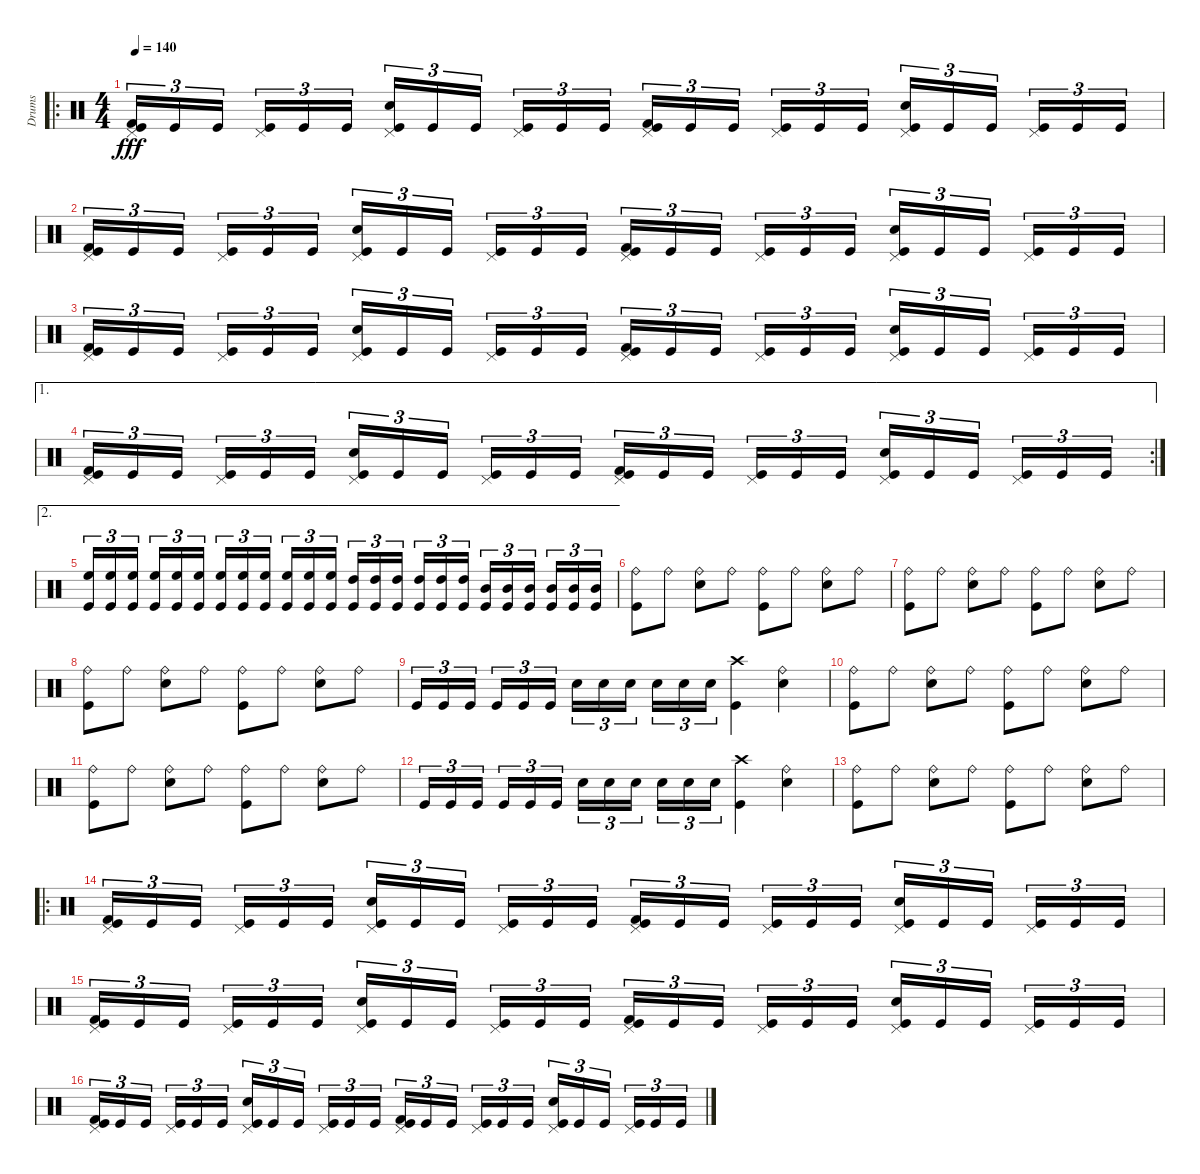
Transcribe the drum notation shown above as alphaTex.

\track ("Drums" "Drums") {instrument percussion}
\staff {score}
\articulation defaults
\ro
\ts (4 4)
\tempo 140
\clef neutral
\ks c
("Kick (hit)" "Kick (hit) 2" "Pedal Hi-Hat (hit)").16{tu (3 2) dy fff} "Kick (hit)".16{tu (3 2)} "Kick (hit)".16{tu (3 2)} ("Kick (hit)" "Pedal Hi-Hat (hit)").16{tu (3 2)} "Kick (hit)".16{tu (3 2)} "Kick (hit)".16{tu (3 2)} ("Kick (hit)" "Snare (hit) 2" "Pedal Hi-Hat (hit)").16{tu (3 2)} "Kick (hit)".16{tu (3 2)} "Kick (hit)".16{tu (3 2)} ("Kick (hit)" "Pedal Hi-Hat (hit)").16{tu (3 2)} "Kick (hit)".16{tu (3 2)} "Kick (hit)".16{tu (3 2)} ("Kick (hit)" "Kick (hit) 2" "Pedal Hi-Hat (hit)").16{tu (3 2)} "Kick (hit)".16{tu (3 2)} "Kick (hit)".16{tu (3 2)} ("Kick (hit)" "Pedal Hi-Hat (hit)").16{tu (3 2)} "Kick (hit)".16{tu (3 2)} "Kick (hit)".16{tu (3 2)} ("Kick (hit)" "Snare (hit) 2" "Pedal Hi-Hat (hit)").16{tu (3 2)} "Kick (hit)".16{tu (3 2)} "Kick (hit)".16{tu (3 2)} ("Kick (hit)" "Pedal Hi-Hat (hit)").16{tu (3 2)} "Kick (hit)".16{tu (3 2)} "Kick (hit)".16{tu (3 2)} |
("Kick (hit)" "Kick (hit) 2" "Pedal Hi-Hat (hit)").16{tu (3 2)} "Kick (hit)".16{tu (3 2)} "Kick (hit)".16{tu (3 2)} ("Kick (hit)" "Pedal Hi-Hat (hit)").16{tu (3 2)} "Kick (hit)".16{tu (3 2)} "Kick (hit)".16{tu (3 2)} ("Kick (hit)" "Snare (hit) 2" "Pedal Hi-Hat (hit)").16{tu (3 2)} "Kick (hit)".16{tu (3 2)} "Kick (hit)".16{tu (3 2)} ("Kick (hit)" "Pedal Hi-Hat (hit)").16{tu (3 2)} "Kick (hit)".16{tu (3 2)} "Kick (hit)".16{tu (3 2)} ("Kick (hit)" "Kick (hit) 2" "Pedal Hi-Hat (hit)").16{tu (3 2)} "Kick (hit)".16{tu (3 2)} "Kick (hit)".16{tu (3 2)} ("Kick (hit)" "Pedal Hi-Hat (hit)").16{tu (3 2)} "Kick (hit)".16{tu (3 2)} "Kick (hit)".16{tu (3 2)} ("Kick (hit)" "Snare (hit) 2" "Pedal Hi-Hat (hit)").16{tu (3 2)} "Kick (hit)".16{tu (3 2)} "Kick (hit)".16{tu (3 2)} ("Kick (hit)" "Pedal Hi-Hat (hit)").16{tu (3 2)} "Kick (hit)".16{tu (3 2)} "Kick (hit)".16{tu (3 2)} |
("Kick (hit)" "Kick (hit) 2" "Pedal Hi-Hat (hit)").16{tu (3 2)} "Kick (hit)".16{tu (3 2)} "Kick (hit)".16{tu (3 2)} ("Kick (hit)" "Pedal Hi-Hat (hit)").16{tu (3 2)} "Kick (hit)".16{tu (3 2)} "Kick (hit)".16{tu (3 2)} ("Kick (hit)" "Snare (hit) 2" "Pedal Hi-Hat (hit)").16{tu (3 2)} "Kick (hit)".16{tu (3 2)} "Kick (hit)".16{tu (3 2)} ("Kick (hit)" "Pedal Hi-Hat (hit)").16{tu (3 2)} "Kick (hit)".16{tu (3 2)} "Kick (hit)".16{tu (3 2)} ("Kick (hit)" "Kick (hit) 2" "Pedal Hi-Hat (hit)").16{tu (3 2)} "Kick (hit)".16{tu (3 2)} "Kick (hit)".16{tu (3 2)} ("Kick (hit)" "Pedal Hi-Hat (hit)").16{tu (3 2)} "Kick (hit)".16{tu (3 2)} "Kick (hit)".16{tu (3 2)} ("Kick (hit)" "Snare (hit) 2" "Pedal Hi-Hat (hit)").16{tu (3 2)} "Kick (hit)".16{tu (3 2)} "Kick (hit)".16{tu (3 2)} ("Kick (hit)" "Pedal Hi-Hat (hit)").16{tu (3 2)} "Kick (hit)".16{tu (3 2)} "Kick (hit)".16{tu (3 2)} |
\ae 1
\rc 2
("Kick (hit)" "Kick (hit) 2" "Pedal Hi-Hat (hit)").16{tu (3 2)} "Kick (hit)".16{tu (3 2)} "Kick (hit)".16{tu (3 2)} ("Kick (hit)" "Pedal Hi-Hat (hit)").16{tu (3 2)} "Kick (hit)".16{tu (3 2)} "Kick (hit)".16{tu (3 2)} ("Kick (hit)" "Snare (hit) 2" "Pedal Hi-Hat (hit)").16{tu (3 2)} "Kick (hit)".16{tu (3 2)} "Kick (hit)".16{tu (3 2)} ("Kick (hit)" "Pedal Hi-Hat (hit)").16{tu (3 2)} "Kick (hit)".16{tu (3 2)} "Kick (hit)".16{tu (3 2)} ("Kick (hit)" "Kick (hit) 2" "Pedal Hi-Hat (hit)").16{tu (3 2)} "Kick (hit)".16{tu (3 2)} "Kick (hit)".16{tu (3 2)} ("Kick (hit)" "Pedal Hi-Hat (hit)").16{tu (3 2)} "Kick (hit)".16{tu (3 2)} "Kick (hit)".16{tu (3 2)} ("Kick (hit)" "Snare (hit) 2" "Pedal Hi-Hat (hit)").16{tu (3 2)} "Kick (hit)".16{tu (3 2)} "Kick (hit)".16{tu (3 2)} ("Kick (hit)" "Pedal Hi-Hat (hit)").16{tu (3 2)} "Kick (hit)".16{tu (3 2)} "Kick (hit)".16{tu (3 2)} |
\ae 2
("Kick (hit)" "High Floor Tom (hit)").16{tu (3 2)} ("Kick (hit)" "High Floor Tom (hit)").16{tu (3 2)} ("Kick (hit)" "High Floor Tom (hit)").16{tu (3 2)} ("Kick (hit)" "High Floor Tom (hit)").16{tu (3 2)} ("Kick (hit)" "High Floor Tom (hit)").16{tu (3 2)} ("Kick (hit)" "High Floor Tom (hit)").16{tu (3 2)} ("Kick (hit)" "High Floor Tom (hit)").16{tu (3 2)} ("Kick (hit)" "High Floor Tom (hit)").16{tu (3 2)} ("Kick (hit)" "High Floor Tom (hit)").16{tu (3 2)} ("Kick (hit)" "High Floor Tom (hit)").16{tu (3 2)} ("Kick (hit)" "High Floor Tom (hit)").16{tu (3 2)} ("Kick (hit)" "High Floor Tom (hit)").16{tu (3 2)} ("Kick (hit)" "High Tom (hit)").16{tu (3 2)} ("Kick (hit)" "High Tom (hit)").16{tu (3 2)} ("Kick (hit)" "High Tom (hit)").16{tu (3 2)} ("Kick (hit)" "High Tom (hit)").16{tu (3 2)} ("Kick (hit)" "High Tom (hit)").16{tu (3 2)} ("Kick (hit)" "High Tom (hit)").16{tu (3 2)} ("Kick (hit)" "Mid Tom (hit)").16{tu (3 2)} ("Kick (hit)" "Mid Tom (hit)").16{tu (3 2)} ("Kick (hit)" "Mid Tom (hit)").16{tu (3 2)} ("Kick (hit)" "Mid Tom (hit)").16{tu (3 2)} ("Kick (hit)" "Mid Tom (hit)").16{tu (3 2)} ("Kick (hit)" "Mid Tom (hit)").16{tu (3 2)} |
("Ride (bell)" "Kick (hit)").8 "Ride (bell)".8 ("Ride (bell)" "Snare (hit) 2").8 "Ride (bell)".8 ("Ride (bell)" "Kick (hit)").8 "Ride (bell)".8 ("Ride (bell)" "Snare (hit) 2").8 "Ride (bell)".8 |
("Ride (bell)" "Kick (hit)").8 "Ride (bell)".8 ("Ride (bell)" "Snare (hit) 2").8 "Ride (bell)".8 ("Ride (bell)" "Kick (hit)").8 "Ride (bell)".8 ("Ride (bell)" "Snare (hit) 2").8 "Ride (bell)".8 |
("Ride (bell)" "Kick (hit)").8 "Ride (bell)".8 ("Ride (bell)" "Snare (hit) 2").8 "Ride (bell)".8 ("Ride (bell)" "Kick (hit)").8 "Ride (bell)".8 ("Ride (bell)" "Snare (hit) 2").8 "Ride (bell)".8 |
"Kick (hit)".16{tu (3 2)} "Kick (hit)".16{tu (3 2)} "Kick (hit)".16{tu (3 2)} "Kick (hit)".16{tu (3 2)} "Kick (hit)".16{tu (3 2)} "Kick (hit)".16{tu (3 2)} "Snare (hit) 2".16{tu (3 2)} "Snare (hit) 2".16{tu (3 2)} "Snare (hit) 2".16{tu (3 2)} "Snare (hit) 2".16{tu (3 2)} "Snare (hit) 2".16{tu (3 2)} "Snare (hit) 2".16{tu (3 2)} ("Crash high (hit)" "Kick (hit)").4 ("Ride (bell)" "Snare (hit) 2").4 |
("Ride (bell)" "Kick (hit)").8 "Ride (bell)".8 ("Ride (bell)" "Snare (hit) 2").8 "Ride (bell)".8 ("Ride (bell)" "Kick (hit)").8 "Ride (bell)".8 ("Ride (bell)" "Snare (hit) 2").8 "Ride (bell)".8 |
("Ride (bell)" "Kick (hit)").8 "Ride (bell)".8 ("Ride (bell)" "Snare (hit) 2").8 "Ride (bell)".8 ("Ride (bell)" "Kick (hit)").8 "Ride (bell)".8 ("Ride (bell)" "Snare (hit) 2").8 "Ride (bell)".8 |
"Kick (hit)".16{tu (3 2)} "Kick (hit)".16{tu (3 2)} "Kick (hit)".16{tu (3 2)} "Kick (hit)".16{tu (3 2)} "Kick (hit)".16{tu (3 2)} "Kick (hit)".16{tu (3 2)} "Snare (hit) 2".16{tu (3 2)} "Snare (hit) 2".16{tu (3 2)} "Snare (hit) 2".16{tu (3 2)} "Snare (hit) 2".16{tu (3 2)} "Snare (hit) 2".16{tu (3 2)} "Snare (hit) 2".16{tu (3 2)} ("Crash high (hit)" "Kick (hit)").4 ("Ride (bell)" "Snare (hit) 2").4 |
("Ride (bell)" "Kick (hit)").8 "Ride (bell)".8 ("Ride (bell)" "Snare (hit) 2").8 "Ride (bell)".8 ("Ride (bell)" "Kick (hit)").8 "Ride (bell)".8 ("Ride (bell)" "Snare (hit) 2").8 "Ride (bell)".8 |
\ro
("Kick (hit)" "Kick (hit) 2" "Pedal Hi-Hat (hit)").16{tu (3 2)} "Kick (hit)".16{tu (3 2)} "Kick (hit)".16{tu (3 2)} ("Kick (hit)" "Pedal Hi-Hat (hit)").16{tu (3 2)} "Kick (hit)".16{tu (3 2)} "Kick (hit)".16{tu (3 2)} ("Kick (hit)" "Snare (hit) 2" "Pedal Hi-Hat (hit)").16{tu (3 2)} "Kick (hit)".16{tu (3 2)} "Kick (hit)".16{tu (3 2)} ("Kick (hit)" "Pedal Hi-Hat (hit)").16{tu (3 2)} "Kick (hit)".16{tu (3 2)} "Kick (hit)".16{tu (3 2)} ("Kick (hit)" "Kick (hit) 2" "Pedal Hi-Hat (hit)").16{tu (3 2)} "Kick (hit)".16{tu (3 2)} "Kick (hit)".16{tu (3 2)} ("Kick (hit)" "Pedal Hi-Hat (hit)").16{tu (3 2)} "Kick (hit)".16{tu (3 2)} "Kick (hit)".16{tu (3 2)} ("Kick (hit)" "Snare (hit) 2" "Pedal Hi-Hat (hit)").16{tu (3 2)} "Kick (hit)".16{tu (3 2)} "Kick (hit)".16{tu (3 2)} ("Kick (hit)" "Pedal Hi-Hat (hit)").16{tu (3 2)} "Kick (hit)".16{tu (3 2)} "Kick (hit)".16{tu (3 2)} |
("Kick (hit)" "Kick (hit) 2" "Pedal Hi-Hat (hit)").16{tu (3 2)} "Kick (hit)".16{tu (3 2)} "Kick (hit)".16{tu (3 2)} ("Kick (hit)" "Pedal Hi-Hat (hit)").16{tu (3 2)} "Kick (hit)".16{tu (3 2)} "Kick (hit)".16{tu (3 2)} ("Kick (hit)" "Snare (hit) 2" "Pedal Hi-Hat (hit)").16{tu (3 2)} "Kick (hit)".16{tu (3 2)} "Kick (hit)".16{tu (3 2)} ("Kick (hit)" "Pedal Hi-Hat (hit)").16{tu (3 2)} "Kick (hit)".16{tu (3 2)} "Kick (hit)".16{tu (3 2)} ("Kick (hit)" "Kick (hit) 2" "Pedal Hi-Hat (hit)").16{tu (3 2)} "Kick (hit)".16{tu (3 2)} "Kick (hit)".16{tu (3 2)} ("Kick (hit)" "Pedal Hi-Hat (hit)").16{tu (3 2)} "Kick (hit)".16{tu (3 2)} "Kick (hit)".16{tu (3 2)} ("Kick (hit)" "Snare (hit) 2" "Pedal Hi-Hat (hit)").16{tu (3 2)} "Kick (hit)".16{tu (3 2)} "Kick (hit)".16{tu (3 2)} ("Kick (hit)" "Pedal Hi-Hat (hit)").16{tu (3 2)} "Kick (hit)".16{tu (3 2)} "Kick (hit)".16{tu (3 2)} |
("Kick (hit)" "Kick (hit) 2" "Pedal Hi-Hat (hit)").16{tu (3 2)} "Kick (hit)".16{tu (3 2)} "Kick (hit)".16{tu (3 2)} ("Kick (hit)" "Pedal Hi-Hat (hit)").16{tu (3 2)} "Kick (hit)".16{tu (3 2)} "Kick (hit)".16{tu (3 2)} ("Kick (hit)" "Snare (hit) 2" "Pedal Hi-Hat (hit)").16{tu (3 2)} "Kick (hit)".16{tu (3 2)} "Kick (hit)".16{tu (3 2)} ("Kick (hit)" "Pedal Hi-Hat (hit)").16{tu (3 2)} "Kick (hit)".16{tu (3 2)} "Kick (hit)".16{tu (3 2)} ("Kick (hit)" "Kick (hit) 2" "Pedal Hi-Hat (hit)").16{tu (3 2)} "Kick (hit)".16{tu (3 2)} "Kick (hit)".16{tu (3 2)} ("Kick (hit)" "Pedal Hi-Hat (hit)").16{tu (3 2)} "Kick (hit)".16{tu (3 2)} "Kick (hit)".16{tu (3 2)} ("Kick (hit)" "Snare (hit) 2" "Pedal Hi-Hat (hit)").16{tu (3 2)} "Kick (hit)".16{tu (3 2)} "Kick (hit)".16{tu (3 2)} ("Kick (hit)" "Pedal Hi-Hat (hit)").16{tu (3 2)} "Kick (hit)".16{tu (3 2)} "Kick (hit)".16{tu (3 2)}
